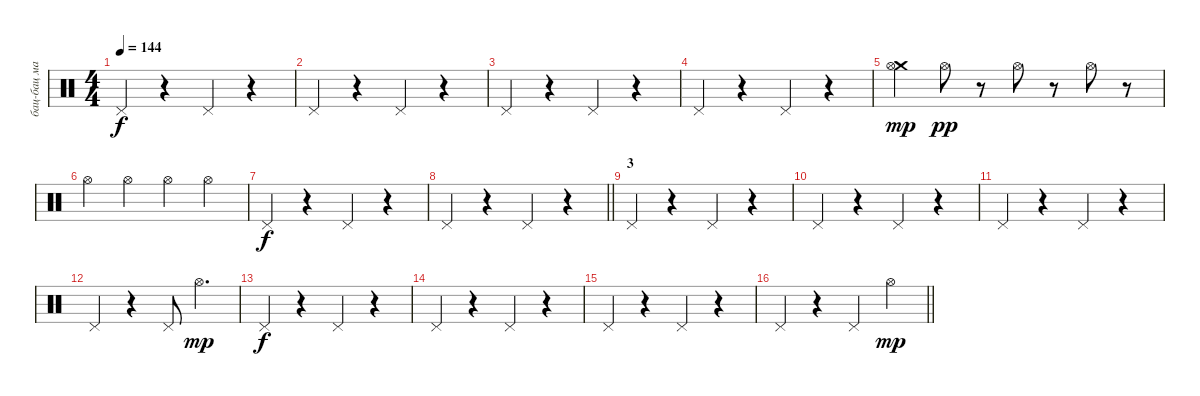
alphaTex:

\track ("бац-бац машина" "бац-бац ма") {instrument percussion}
\staff {score}
\articulation defaults
\ts (4 4)
\tempo 144
\clef neutral
\ks c "Pedal Hi-Hat (hit)".4{dy f}
r.4 "Pedal Hi-Hat (hit)".4 r.4 |
"Pedal Hi-Hat (hit)".4 r.4 "Pedal Hi-Hat (hit)".4 r.4 |
"Pedal Hi-Hat (hit)".4 r.4 "Pedal Hi-Hat (hit)".4 r.4 |
"Pedal Hi-Hat (hit)".4 r.4 "Pedal Hi-Hat (hit)".4 r.4 |
("Crash medium (hit)" "Hi-Hat (open)").4{dy mp} "Hi-Hat (open)".8{dy pp} r.8 "Hi-Hat (open)".8 r.8 "Hi-Hat (open)".8 r.8 |
"Hi-Hat (open)".4 "Hi-Hat (open)".4 "Hi-Hat (open)".4 "Hi-Hat (open)".4 |
"Pedal Hi-Hat (hit)".4{dy f} r.4 "Pedal Hi-Hat (hit)".4 r.4 |
\barLineRight lightlight "Pedal Hi-Hat (hit)".4
r.4 "Pedal Hi-Hat (hit)".4 r.4 |
\section ("" "3")
"Pedal Hi-Hat (hit)".4 r.4 "Pedal Hi-Hat (hit)".4 r.4 |
"Pedal Hi-Hat (hit)".4 r.4 "Pedal Hi-Hat (hit)".4 r.4 |
"Pedal Hi-Hat (hit)".4 r.4 "Pedal Hi-Hat (hit)".4 r.4 |
"Pedal Hi-Hat (hit)".4 r.4 "Pedal Hi-Hat (hit)".8 "Hi-Hat (open)".4{d dy mp} |
"Pedal Hi-Hat (hit)".4{dy f} r.4 "Pedal Hi-Hat (hit)".4 r.4 |
"Pedal Hi-Hat (hit)".4 r.4 "Pedal Hi-Hat (hit)".4 r.4 |
"Pedal Hi-Hat (hit)".4 r.4 "Pedal Hi-Hat (hit)".4 r.4 |
\barLineRight lightlight "Pedal Hi-Hat (hit)".4
r.4 "Pedal Hi-Hat (hit)".4 "Hi-Hat (open)".4{dy mp}
